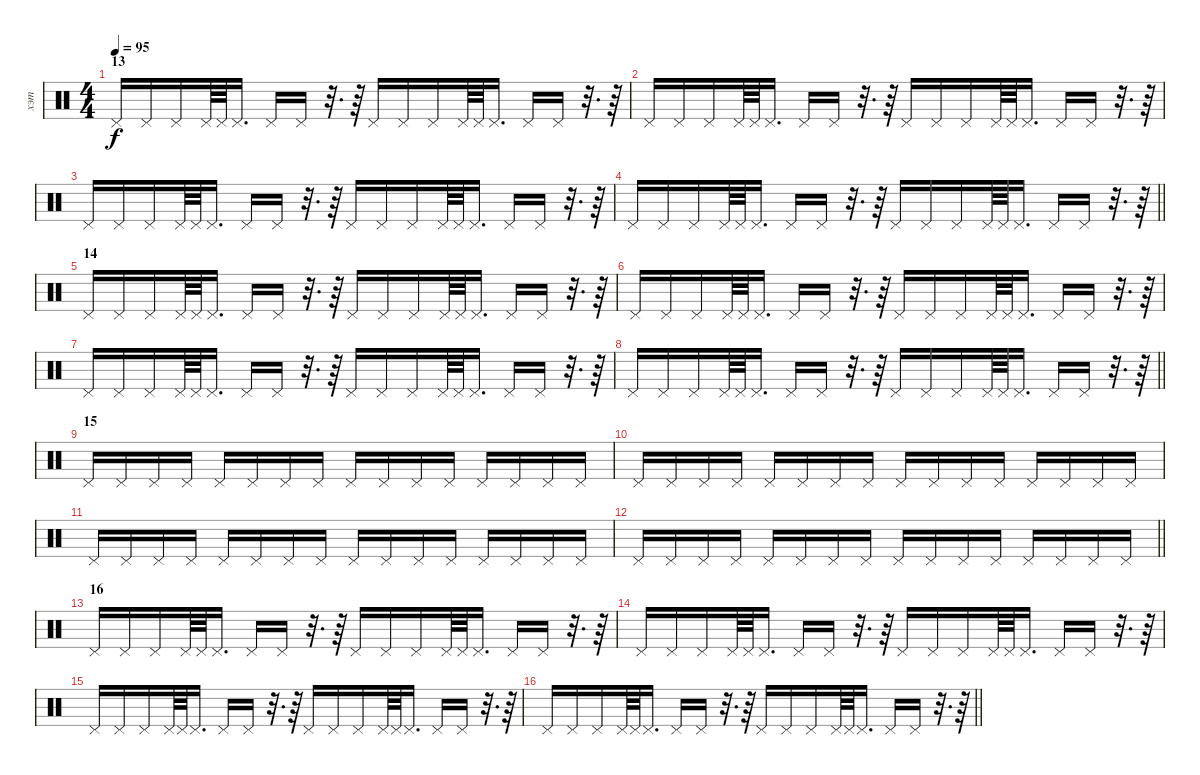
\track ("хэт" "хэт") {instrument percussion}
\staff {score}
\articulation defaults
\ts (4 4)
\section ("" "13")
\tempo 95
\clef neutral
\ks c "Pedal Hi-Hat (hit)".16{dy f} "Pedal Hi-Hat (hit)".16 "Pedal Hi-Hat (hit)".16 "Pedal Hi-Hat (hit)".64 "Pedal Hi-Hat (hit)".64 "Pedal Hi-Hat (hit)".16{d} "Pedal Hi-Hat (hit)".16 "Pedal Hi-Hat (hit)".16
r.32{d} r.64 "Pedal Hi-Hat (hit)".16 "Pedal Hi-Hat (hit)".16 "Pedal Hi-Hat (hit)".16 "Pedal Hi-Hat (hit)".64 "Pedal Hi-Hat (hit)".64 "Pedal Hi-Hat (hit)".16{d} "Pedal Hi-Hat (hit)".16 "Pedal Hi-Hat (hit)".16 r.32{d} r.64 |
"Pedal Hi-Hat (hit)".16 "Pedal Hi-Hat (hit)".16 "Pedal Hi-Hat (hit)".16 "Pedal Hi-Hat (hit)".64 "Pedal Hi-Hat (hit)".64 "Pedal Hi-Hat (hit)".16{d} "Pedal Hi-Hat (hit)".16 "Pedal Hi-Hat (hit)".16 r.32{d} r.64 "Pedal Hi-Hat (hit)".16 "Pedal Hi-Hat (hit)".16 "Pedal Hi-Hat (hit)".16 "Pedal Hi-Hat (hit)".64 "Pedal Hi-Hat (hit)".64 "Pedal Hi-Hat (hit)".16{d} "Pedal Hi-Hat (hit)".16 "Pedal Hi-Hat (hit)".16 r.32{d} r.64 |
"Pedal Hi-Hat (hit)".16 "Pedal Hi-Hat (hit)".16 "Pedal Hi-Hat (hit)".16 "Pedal Hi-Hat (hit)".64 "Pedal Hi-Hat (hit)".64 "Pedal Hi-Hat (hit)".16{d} "Pedal Hi-Hat (hit)".16 "Pedal Hi-Hat (hit)".16 r.32{d} r.64 "Pedal Hi-Hat (hit)".16 "Pedal Hi-Hat (hit)".16 "Pedal Hi-Hat (hit)".16 "Pedal Hi-Hat (hit)".64 "Pedal Hi-Hat (hit)".64 "Pedal Hi-Hat (hit)".16{d} "Pedal Hi-Hat (hit)".16 "Pedal Hi-Hat (hit)".16 r.32{d} r.64 |
\barLineRight lightlight "Pedal Hi-Hat (hit)".16 "Pedal Hi-Hat (hit)".16 "Pedal Hi-Hat (hit)".16 "Pedal Hi-Hat (hit)".64 "Pedal Hi-Hat (hit)".64 "Pedal Hi-Hat (hit)".16{d} "Pedal Hi-Hat (hit)".16 "Pedal Hi-Hat (hit)".16
r.32{d} r.64 "Pedal Hi-Hat (hit)".16 "Pedal Hi-Hat (hit)".16 "Pedal Hi-Hat (hit)".16 "Pedal Hi-Hat (hit)".64 "Pedal Hi-Hat (hit)".64 "Pedal Hi-Hat (hit)".16{d} "Pedal Hi-Hat (hit)".16 "Pedal Hi-Hat (hit)".16 r.32{d} r.64 |
\section ("" "14")
"Pedal Hi-Hat (hit)".16 "Pedal Hi-Hat (hit)".16 "Pedal Hi-Hat (hit)".16 "Pedal Hi-Hat (hit)".64 "Pedal Hi-Hat (hit)".64 "Pedal Hi-Hat (hit)".16{d} "Pedal Hi-Hat (hit)".16 "Pedal Hi-Hat (hit)".16 r.32{d} r.64 "Pedal Hi-Hat (hit)".16 "Pedal Hi-Hat (hit)".16 "Pedal Hi-Hat (hit)".16 "Pedal Hi-Hat (hit)".64 "Pedal Hi-Hat (hit)".64 "Pedal Hi-Hat (hit)".16{d} "Pedal Hi-Hat (hit)".16 "Pedal Hi-Hat (hit)".16 r.32{d} r.64 |
"Pedal Hi-Hat (hit)".16 "Pedal Hi-Hat (hit)".16 "Pedal Hi-Hat (hit)".16 "Pedal Hi-Hat (hit)".64 "Pedal Hi-Hat (hit)".64 "Pedal Hi-Hat (hit)".16{d} "Pedal Hi-Hat (hit)".16 "Pedal Hi-Hat (hit)".16 r.32{d} r.64 "Pedal Hi-Hat (hit)".16 "Pedal Hi-Hat (hit)".16 "Pedal Hi-Hat (hit)".16 "Pedal Hi-Hat (hit)".64 "Pedal Hi-Hat (hit)".64 "Pedal Hi-Hat (hit)".16{d} "Pedal Hi-Hat (hit)".16 "Pedal Hi-Hat (hit)".16 r.32{d} r.64 |
"Pedal Hi-Hat (hit)".16 "Pedal Hi-Hat (hit)".16 "Pedal Hi-Hat (hit)".16 "Pedal Hi-Hat (hit)".64 "Pedal Hi-Hat (hit)".64 "Pedal Hi-Hat (hit)".16{d} "Pedal Hi-Hat (hit)".16 "Pedal Hi-Hat (hit)".16 r.32{d} r.64 "Pedal Hi-Hat (hit)".16 "Pedal Hi-Hat (hit)".16 "Pedal Hi-Hat (hit)".16 "Pedal Hi-Hat (hit)".64 "Pedal Hi-Hat (hit)".64 "Pedal Hi-Hat (hit)".16{d} "Pedal Hi-Hat (hit)".16 "Pedal Hi-Hat (hit)".16 r.32{d} r.64 |
\barLineRight lightlight "Pedal Hi-Hat (hit)".16 "Pedal Hi-Hat (hit)".16 "Pedal Hi-Hat (hit)".16 "Pedal Hi-Hat (hit)".64 "Pedal Hi-Hat (hit)".64 "Pedal Hi-Hat (hit)".16{d} "Pedal Hi-Hat (hit)".16 "Pedal Hi-Hat (hit)".16
r.32{d} r.64 "Pedal Hi-Hat (hit)".16 "Pedal Hi-Hat (hit)".16 "Pedal Hi-Hat (hit)".16 "Pedal Hi-Hat (hit)".64 "Pedal Hi-Hat (hit)".64 "Pedal Hi-Hat (hit)".16{d} "Pedal Hi-Hat (hit)".16 "Pedal Hi-Hat (hit)".16 r.32{d} r.64 |
\section ("" "15")
"Pedal Hi-Hat (hit)".16 "Pedal Hi-Hat (hit)".16 "Pedal Hi-Hat (hit)".16 "Pedal Hi-Hat (hit)".16 "Pedal Hi-Hat (hit)".16 "Pedal Hi-Hat (hit)".16 "Pedal Hi-Hat (hit)".16 "Pedal Hi-Hat (hit)".16 "Pedal Hi-Hat (hit)".16 "Pedal Hi-Hat (hit)".16 "Pedal Hi-Hat (hit)".16 "Pedal Hi-Hat (hit)".16 "Pedal Hi-Hat (hit)".16 "Pedal Hi-Hat (hit)".16 "Pedal Hi-Hat (hit)".16 "Pedal Hi-Hat (hit)".16 |
"Pedal Hi-Hat (hit)".16 "Pedal Hi-Hat (hit)".16 "Pedal Hi-Hat (hit)".16 "Pedal Hi-Hat (hit)".16 "Pedal Hi-Hat (hit)".16 "Pedal Hi-Hat (hit)".16 "Pedal Hi-Hat (hit)".16 "Pedal Hi-Hat (hit)".16 "Pedal Hi-Hat (hit)".16 "Pedal Hi-Hat (hit)".16 "Pedal Hi-Hat (hit)".16 "Pedal Hi-Hat (hit)".16 "Pedal Hi-Hat (hit)".16 "Pedal Hi-Hat (hit)".16 "Pedal Hi-Hat (hit)".16 "Pedal Hi-Hat (hit)".16 |
"Pedal Hi-Hat (hit)".16 "Pedal Hi-Hat (hit)".16 "Pedal Hi-Hat (hit)".16 "Pedal Hi-Hat (hit)".16 "Pedal Hi-Hat (hit)".16 "Pedal Hi-Hat (hit)".16 "Pedal Hi-Hat (hit)".16 "Pedal Hi-Hat (hit)".16 "Pedal Hi-Hat (hit)".16 "Pedal Hi-Hat (hit)".16 "Pedal Hi-Hat (hit)".16 "Pedal Hi-Hat (hit)".16 "Pedal Hi-Hat (hit)".16 "Pedal Hi-Hat (hit)".16 "Pedal Hi-Hat (hit)".16 "Pedal Hi-Hat (hit)".16 |
\barLineRight lightlight "Pedal Hi-Hat (hit)".16 "Pedal Hi-Hat (hit)".16 "Pedal Hi-Hat (hit)".16 "Pedal Hi-Hat (hit)".16 "Pedal Hi-Hat (hit)".16 "Pedal Hi-Hat (hit)".16 "Pedal Hi-Hat (hit)".16 "Pedal Hi-Hat (hit)".16 "Pedal Hi-Hat (hit)".16 "Pedal Hi-Hat (hit)".16 "Pedal Hi-Hat (hit)".16 "Pedal Hi-Hat (hit)".16 "Pedal Hi-Hat (hit)".16 "Pedal Hi-Hat (hit)".16 "Pedal Hi-Hat (hit)".16 "Pedal Hi-Hat (hit)".16
|
\section ("" "16")
"Pedal Hi-Hat (hit)".16 "Pedal Hi-Hat (hit)".16 "Pedal Hi-Hat (hit)".16 "Pedal Hi-Hat (hit)".64 "Pedal Hi-Hat (hit)".64 "Pedal Hi-Hat (hit)".16{d} "Pedal Hi-Hat (hit)".16 "Pedal Hi-Hat (hit)".16 r.32{d} r.64 "Pedal Hi-Hat (hit)".16 "Pedal Hi-Hat (hit)".16 "Pedal Hi-Hat (hit)".16 "Pedal Hi-Hat (hit)".64 "Pedal Hi-Hat (hit)".64 "Pedal Hi-Hat (hit)".16{d} "Pedal Hi-Hat (hit)".16 "Pedal Hi-Hat (hit)".16 r.32{d} r.64 |
"Pedal Hi-Hat (hit)".16 "Pedal Hi-Hat (hit)".16 "Pedal Hi-Hat (hit)".16 "Pedal Hi-Hat (hit)".64 "Pedal Hi-Hat (hit)".64 "Pedal Hi-Hat (hit)".16{d} "Pedal Hi-Hat (hit)".16 "Pedal Hi-Hat (hit)".16 r.32{d} r.64 "Pedal Hi-Hat (hit)".16 "Pedal Hi-Hat (hit)".16 "Pedal Hi-Hat (hit)".16 "Pedal Hi-Hat (hit)".64 "Pedal Hi-Hat (hit)".64 "Pedal Hi-Hat (hit)".16{d} "Pedal Hi-Hat (hit)".16 "Pedal Hi-Hat (hit)".16 r.32{d} r.64 |
"Pedal Hi-Hat (hit)".16 "Pedal Hi-Hat (hit)".16 "Pedal Hi-Hat (hit)".16 "Pedal Hi-Hat (hit)".64 "Pedal Hi-Hat (hit)".64 "Pedal Hi-Hat (hit)".16{d} "Pedal Hi-Hat (hit)".16 "Pedal Hi-Hat (hit)".16 r.32{d} r.64 "Pedal Hi-Hat (hit)".16 "Pedal Hi-Hat (hit)".16 "Pedal Hi-Hat (hit)".16 "Pedal Hi-Hat (hit)".64 "Pedal Hi-Hat (hit)".64 "Pedal Hi-Hat (hit)".16{d} "Pedal Hi-Hat (hit)".16 "Pedal Hi-Hat (hit)".16 r.32{d} r.64 |
\barLineRight lightlight "Pedal Hi-Hat (hit)".16 "Pedal Hi-Hat (hit)".16 "Pedal Hi-Hat (hit)".16 "Pedal Hi-Hat (hit)".64 "Pedal Hi-Hat (hit)".64 "Pedal Hi-Hat (hit)".16{d} "Pedal Hi-Hat (hit)".16 "Pedal Hi-Hat (hit)".16
r.32{d} r.64 "Pedal Hi-Hat (hit)".16 "Pedal Hi-Hat (hit)".16 "Pedal Hi-Hat (hit)".16 "Pedal Hi-Hat (hit)".64 "Pedal Hi-Hat (hit)".64 "Pedal Hi-Hat (hit)".16{d} "Pedal Hi-Hat (hit)".16 "Pedal Hi-Hat (hit)".16 r.32{d} r.64
